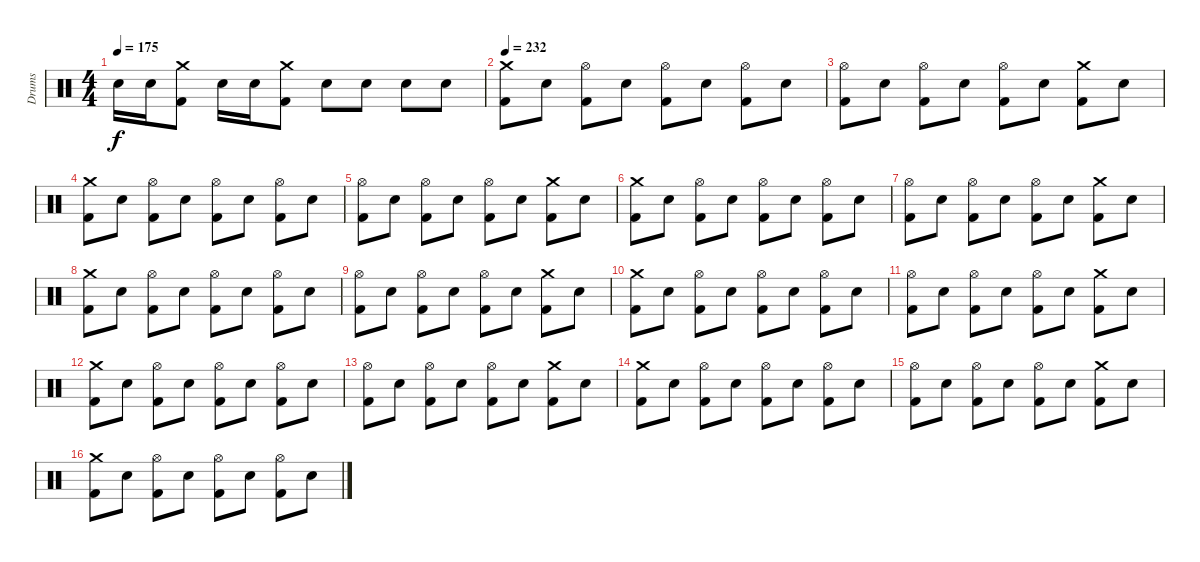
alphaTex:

\track ("Drums" "Drums") {instrument percussion}
\staff {score}
\articulation defaults
\ts (4 4)
\tempo 175
\clef neutral
\ks c "Electric Snare (hit)".16{dy f} "Electric Snare (hit)".16
("Crash medium (hit)" "Kick (hit) 2").8 "Electric Snare (hit)".16 "Electric Snare (hit)".16 ("Crash medium (hit)" "Kick (hit) 2").8 "Electric Snare (hit)".8 "Electric Snare (hit)".8 "Electric Snare (hit)".8 "Electric Snare (hit)".8 |
\tempo 232
("Crash medium (hit)" "Kick (hit) 2").8 "Electric Snare (hit)".8 ("Hi-Hat (open)" "Kick (hit) 2").8 "Electric Snare (hit)".8 ("Hi-Hat (open)" "Kick (hit) 2").8 "Electric Snare (hit)".8 ("Hi-Hat (open)" "Kick (hit) 2").8 "Electric Snare (hit)".8 |
("Hi-Hat (open)" "Kick (hit) 2").8 "Electric Snare (hit)".8 ("Hi-Hat (open)" "Kick (hit) 2").8 "Electric Snare (hit)".8 ("Hi-Hat (open)" "Kick (hit) 2").8 "Electric Snare (hit)".8 ("Crash medium (hit)" "Kick (hit) 2").8 "Electric Snare (hit)".8 |
("Crash medium (hit)" "Kick (hit) 2").8 "Electric Snare (hit)".8 ("Hi-Hat (open)" "Kick (hit) 2").8 "Electric Snare (hit)".8 ("Hi-Hat (open)" "Kick (hit) 2").8 "Electric Snare (hit)".8 ("Hi-Hat (open)" "Kick (hit) 2").8 "Electric Snare (hit)".8 |
("Hi-Hat (open)" "Kick (hit) 2").8 "Electric Snare (hit)".8 ("Hi-Hat (open)" "Kick (hit) 2").8 "Electric Snare (hit)".8 ("Hi-Hat (open)" "Kick (hit) 2").8 "Electric Snare (hit)".8 ("Crash medium (hit)" "Kick (hit) 2").8 "Electric Snare (hit)".8 |
("Crash medium (hit)" "Kick (hit) 2").8 "Electric Snare (hit)".8 ("Hi-Hat (open)" "Kick (hit) 2").8 "Electric Snare (hit)".8 ("Hi-Hat (open)" "Kick (hit) 2").8 "Electric Snare (hit)".8 ("Hi-Hat (open)" "Kick (hit) 2").8 "Electric Snare (hit)".8 |
("Hi-Hat (open)" "Kick (hit) 2").8 "Electric Snare (hit)".8 ("Hi-Hat (open)" "Kick (hit) 2").8 "Electric Snare (hit)".8 ("Hi-Hat (open)" "Kick (hit) 2").8 "Electric Snare (hit)".8 ("Crash medium (hit)" "Kick (hit) 2").8 "Electric Snare (hit)".8 |
("Crash medium (hit)" "Kick (hit) 2").8 "Electric Snare (hit)".8 ("Hi-Hat (open)" "Kick (hit) 2").8 "Electric Snare (hit)".8 ("Hi-Hat (open)" "Kick (hit) 2").8 "Electric Snare (hit)".8 ("Hi-Hat (open)" "Kick (hit) 2").8 "Electric Snare (hit)".8 |
("Hi-Hat (open)" "Kick (hit) 2").8 "Electric Snare (hit)".8 ("Hi-Hat (open)" "Kick (hit) 2").8 "Electric Snare (hit)".8 ("Hi-Hat (open)" "Kick (hit) 2").8 "Electric Snare (hit)".8 ("Crash medium (hit)" "Kick (hit) 2").8 "Electric Snare (hit)".8 |
("Crash medium (hit)" "Kick (hit) 2").8 "Electric Snare (hit)".8 ("Hi-Hat (open)" "Kick (hit) 2").8 "Electric Snare (hit)".8 ("Hi-Hat (open)" "Kick (hit) 2").8 "Electric Snare (hit)".8 ("Hi-Hat (open)" "Kick (hit) 2").8 "Electric Snare (hit)".8 |
("Hi-Hat (open)" "Kick (hit) 2").8 "Electric Snare (hit)".8 ("Hi-Hat (open)" "Kick (hit) 2").8 "Electric Snare (hit)".8 ("Hi-Hat (open)" "Kick (hit) 2").8 "Electric Snare (hit)".8 ("Crash medium (hit)" "Kick (hit) 2").8 "Electric Snare (hit)".8 |
("Crash medium (hit)" "Kick (hit) 2").8 "Electric Snare (hit)".8 ("Hi-Hat (open)" "Kick (hit) 2").8 "Electric Snare (hit)".8 ("Hi-Hat (open)" "Kick (hit) 2").8 "Electric Snare (hit)".8 ("Hi-Hat (open)" "Kick (hit) 2").8 "Electric Snare (hit)".8 |
("Hi-Hat (open)" "Kick (hit) 2").8 "Electric Snare (hit)".8 ("Hi-Hat (open)" "Kick (hit) 2").8 "Electric Snare (hit)".8 ("Hi-Hat (open)" "Kick (hit) 2").8 "Electric Snare (hit)".8 ("Crash medium (hit)" "Kick (hit) 2").8 "Electric Snare (hit)".8 |
("Crash medium (hit)" "Kick (hit) 2").8 "Electric Snare (hit)".8 ("Hi-Hat (open)" "Kick (hit) 2").8 "Electric Snare (hit)".8 ("Hi-Hat (open)" "Kick (hit) 2").8 "Electric Snare (hit)".8 ("Hi-Hat (open)" "Kick (hit) 2").8 "Electric Snare (hit)".8 |
("Hi-Hat (open)" "Kick (hit) 2").8 "Electric Snare (hit)".8 ("Hi-Hat (open)" "Kick (hit) 2").8 "Electric Snare (hit)".8 ("Hi-Hat (open)" "Kick (hit) 2").8 "Electric Snare (hit)".8 ("Crash medium (hit)" "Kick (hit) 2").8 "Electric Snare (hit)".8 |
("Crash medium (hit)" "Kick (hit) 2").8 "Electric Snare (hit)".8 ("Hi-Hat (open)" "Kick (hit) 2").8 "Electric Snare (hit)".8 ("Hi-Hat (open)" "Kick (hit) 2").8 "Electric Snare (hit)".8 ("Hi-Hat (open)" "Kick (hit) 2").8 "Electric Snare (hit)".8
